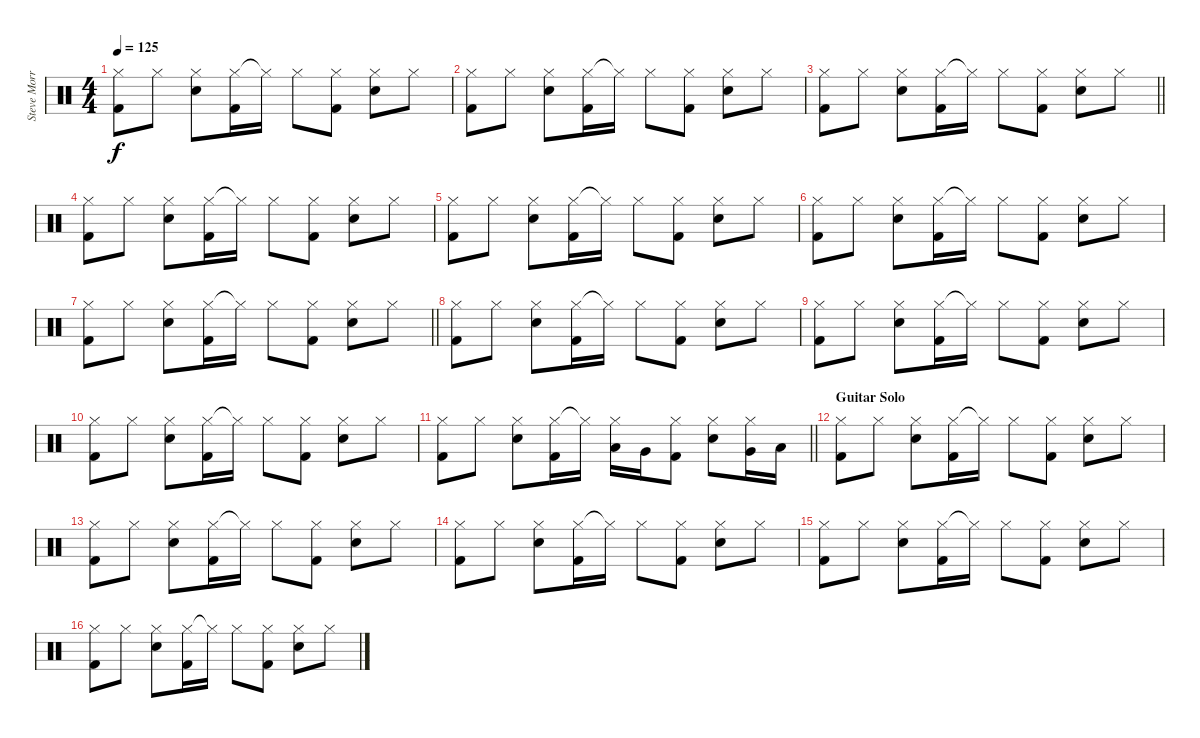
\track ("Steve Morris" "Steve Morr") {instrument percussion}
\staff {score}
\articulation defaults
\ts (4 4)
\tempo 125
\clef neutral
\ks c
("Hi-Hat (closed)" "Kick (hit) 2").8{dy f} "Hi-Hat (closed)".8 ("Hi-Hat (closed)" "Electric Snare (hit)").8 ("Hi-Hat (closed)" "Kick (hit) 2").16 "Hi-Hat (closed)"{t}.16 "Hi-Hat (closed)".8 ("Hi-Hat (closed)" "Kick (hit) 2").8 ("Hi-Hat (closed)" "Electric Snare (hit)").8 "Hi-Hat (closed)".8 |
("Hi-Hat (closed)" "Kick (hit) 2").8 "Hi-Hat (closed)".8 ("Hi-Hat (closed)" "Electric Snare (hit)").8 ("Hi-Hat (closed)" "Kick (hit) 2").16 "Hi-Hat (closed)"{t}.16 "Hi-Hat (closed)".8 ("Hi-Hat (closed)" "Kick (hit) 2").8 ("Hi-Hat (closed)" "Electric Snare (hit)").8 "Hi-Hat (closed)".8 |
\barLineRight lightlight
("Hi-Hat (closed)" "Kick (hit) 2").8 "Hi-Hat (closed)".8 ("Hi-Hat (closed)" "Electric Snare (hit)").8 ("Hi-Hat (closed)" "Kick (hit) 2").16 "Hi-Hat (closed)"{t}.16 "Hi-Hat (closed)".8 ("Hi-Hat (closed)" "Kick (hit) 2").8 ("Hi-Hat (closed)" "Electric Snare (hit)").8 "Hi-Hat (closed)".8 |
("Hi-Hat (closed)" "Kick (hit) 2").8 "Hi-Hat (closed)".8 ("Hi-Hat (closed)" "Electric Snare (hit)").8 ("Hi-Hat (closed)" "Kick (hit) 2").16 "Hi-Hat (closed)"{t}.16 "Hi-Hat (closed)".8 ("Hi-Hat (closed)" "Kick (hit) 2").8 ("Hi-Hat (closed)" "Electric Snare (hit)").8 "Hi-Hat (closed)".8 |
("Hi-Hat (closed)" "Kick (hit) 2").8 "Hi-Hat (closed)".8 ("Hi-Hat (closed)" "Electric Snare (hit)").8 ("Hi-Hat (closed)" "Kick (hit) 2").16 "Hi-Hat (closed)"{t}.16 "Hi-Hat (closed)".8 ("Hi-Hat (closed)" "Kick (hit) 2").8 ("Hi-Hat (closed)" "Electric Snare (hit)").8 "Hi-Hat (closed)".8 |
("Hi-Hat (closed)" "Kick (hit) 2").8 "Hi-Hat (closed)".8 ("Hi-Hat (closed)" "Electric Snare (hit)").8 ("Hi-Hat (closed)" "Kick (hit) 2").16 "Hi-Hat (closed)"{t}.16 "Hi-Hat (closed)".8 ("Hi-Hat (closed)" "Kick (hit) 2").8 ("Hi-Hat (closed)" "Electric Snare (hit)").8 "Hi-Hat (closed)".8 |
\barLineRight lightlight
("Hi-Hat (closed)" "Kick (hit) 2").8 "Hi-Hat (closed)".8 ("Hi-Hat (closed)" "Electric Snare (hit)").8 ("Hi-Hat (closed)" "Kick (hit) 2").16 "Hi-Hat (closed)"{t}.16 "Hi-Hat (closed)".8 ("Hi-Hat (closed)" "Kick (hit) 2").8 ("Hi-Hat (closed)" "Electric Snare (hit)").8 "Hi-Hat (closed)".8 |
("Hi-Hat (closed)" "Kick (hit) 2").8 "Hi-Hat (closed)".8 ("Hi-Hat (closed)" "Electric Snare (hit)").8 ("Hi-Hat (closed)" "Kick (hit) 2").16 "Hi-Hat (closed)"{t}.16 "Hi-Hat (closed)".8 ("Hi-Hat (closed)" "Kick (hit) 2").8 ("Hi-Hat (closed)" "Electric Snare (hit)").8 "Hi-Hat (closed)".8 |
("Hi-Hat (closed)" "Kick (hit) 2").8 "Hi-Hat (closed)".8 ("Hi-Hat (closed)" "Electric Snare (hit)").8 ("Hi-Hat (closed)" "Kick (hit) 2").16 "Hi-Hat (closed)"{t}.16 "Hi-Hat (closed)".8 ("Hi-Hat (closed)" "Kick (hit) 2").8 ("Hi-Hat (closed)" "Electric Snare (hit)").8 "Hi-Hat (closed)".8 |
("Hi-Hat (closed)" "Kick (hit) 2").8 "Hi-Hat (closed)".8 ("Hi-Hat (closed)" "Electric Snare (hit)").8 ("Hi-Hat (closed)" "Kick (hit) 2").16 "Hi-Hat (closed)"{t}.16 "Hi-Hat (closed)".8 ("Hi-Hat (closed)" "Kick (hit) 2").8 ("Hi-Hat (closed)" "Electric Snare (hit)").8 "Hi-Hat (closed)".8 |
\barLineRight lightlight
("Hi-Hat (closed)" "Kick (hit) 2").8 "Hi-Hat (closed)".8 ("Hi-Hat (closed)" "Electric Snare (hit)").8 ("Hi-Hat (closed)" "Kick (hit) 2").16 "Hi-Hat (closed)"{t}.16 ("Hi-Hat (closed)" "Low Tom (hit)").16 "Very Low Tom (hit)".16 ("Hi-Hat (closed)" "Kick (hit) 2").8 ("Hi-Hat (closed)" "Electric Snare (hit)").8 ("Hi-Hat (closed)" "Very Low Tom (hit)").16 "Low Floor Tom (hit)".16 |
\section ("" "Guitar Solo")
("Hi-Hat (closed)" "Kick (hit) 2").8 "Hi-Hat (closed)".8 ("Hi-Hat (closed)" "Electric Snare (hit)").8 ("Hi-Hat (closed)" "Kick (hit) 2").16 "Hi-Hat (closed)"{t}.16 "Hi-Hat (closed)".8 ("Hi-Hat (closed)" "Kick (hit) 2").8 ("Hi-Hat (closed)" "Electric Snare (hit)").8 "Hi-Hat (closed)".8 |
("Hi-Hat (closed)" "Kick (hit) 2").8 "Hi-Hat (closed)".8 ("Hi-Hat (closed)" "Electric Snare (hit)").8 ("Hi-Hat (closed)" "Kick (hit) 2").16 "Hi-Hat (closed)"{t}.16 "Hi-Hat (closed)".8 ("Hi-Hat (closed)" "Kick (hit) 2").8 ("Hi-Hat (closed)" "Electric Snare (hit)").8 "Hi-Hat (closed)".8 |
("Hi-Hat (closed)" "Kick (hit) 2").8 "Hi-Hat (closed)".8 ("Hi-Hat (closed)" "Electric Snare (hit)").8 ("Hi-Hat (closed)" "Kick (hit) 2").16 "Hi-Hat (closed)"{t}.16 "Hi-Hat (closed)".8 ("Hi-Hat (closed)" "Kick (hit) 2").8 ("Hi-Hat (closed)" "Electric Snare (hit)").8 "Hi-Hat (closed)".8 |
("Hi-Hat (closed)" "Kick (hit) 2").8 "Hi-Hat (closed)".8 ("Hi-Hat (closed)" "Electric Snare (hit)").8 ("Hi-Hat (closed)" "Kick (hit) 2").16 "Hi-Hat (closed)"{t}.16 "Hi-Hat (closed)".8 ("Hi-Hat (closed)" "Kick (hit) 2").8 ("Hi-Hat (closed)" "Electric Snare (hit)").8 "Hi-Hat (closed)".8 |
("Hi-Hat (closed)" "Kick (hit) 2").8 "Hi-Hat (closed)".8 ("Hi-Hat (closed)" "Electric Snare (hit)").8 ("Hi-Hat (closed)" "Kick (hit) 2").16 "Hi-Hat (closed)"{t}.16 "Hi-Hat (closed)".8 ("Hi-Hat (closed)" "Kick (hit) 2").8 ("Hi-Hat (closed)" "Electric Snare (hit)").8 "Hi-Hat (closed)".8
